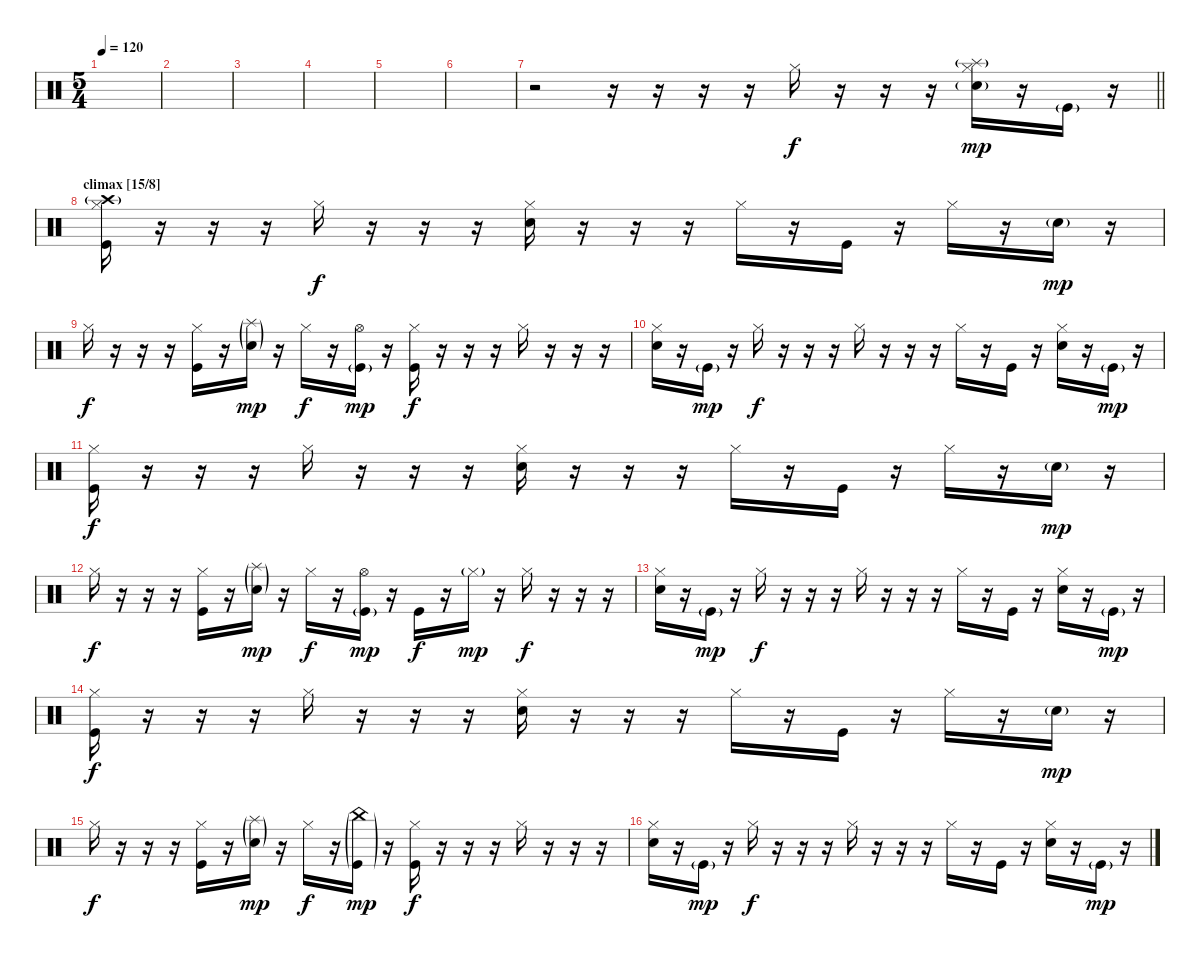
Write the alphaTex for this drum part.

\track "" {instrument percussion}
\staff {score}
\articulation defaults
\ts (5 4)
\tempo 120
\clef neutral
\ks c
|
|
|
|
|
|
\barLineRight lightlight
r.2 r.16 r.16 r.16 r.16 "Hi-Hat (closed)".16{dy f} r.16 r.16 r.16 ("Snare (hit) 2"{g} "Hi-Hat (closed)" "Splash (hit)"{g}).16{dy mp} r.16 "Kick (hit)"{g}.16 r.16 |
\section ("" "climax [15/8]")
("Kick (hit)" "Hi-Hat (closed)" "Crash high (hit)"{g}).16 r.16 r.16 r.16 "Hi-Hat (closed)".16{dy f} r.16 r.16 r.16 ("Snare (hit) 2" "Hi-Hat (closed)").16 r.16 r.16 r.16 "Hi-Hat (closed)".16 r.16 "Kick (hit)".16 r.16 "Hi-Hat (closed)".16 r.16 "Snare (hit) 2"{g}.16{dy mp} r.16 |
"Hi-Hat (closed)".16{dy f} r.16 r.16 r.16 ("Kick (hit)" "Hi-Hat (closed)").16 r.16 ("Snare (hit) 2"{g} "Splash (hit)"{g}).16{dy mp} r.16 "Hi-Hat (closed)".16{dy f} r.16 ("Kick (hit)"{g} "Hi-Hat (open)").16{dy mp} r.16 ("Kick (hit)" "Hi-Hat (closed)").16{dy f} r.16 r.16 r.16 "Hi-Hat (closed)".16 r.16 r.16 r.16 |
("Hi-Hat (closed)" "Snare (hit) 2").16 r.16 "Kick (hit)"{g}.16{dy mp} r.16 "Hi-Hat (closed)".16{dy f} r.16 r.16 r.16 "Hi-Hat (closed)".16 r.16 r.16 r.16 "Hi-Hat (closed)".16 r.16 "Kick (hit)".16 r.16 ("Snare (hit) 2" "Hi-Hat (closed)").16 r.16 "Kick (hit)"{g}.16{dy mp} r.16 |
("Kick (hit)" "Hi-Hat (closed)").16{dy f} r.16 r.16 r.16 "Hi-Hat (closed)".16 r.16 r.16 r.16 ("Snare (hit) 2" "Hi-Hat (closed)").16 r.16 r.16 r.16 "Hi-Hat (closed)".16 r.16 "Kick (hit)".16 r.16 "Hi-Hat (closed)".16 r.16 "Snare (hit) 2"{g}.16{dy mp} r.16 |
"Hi-Hat (closed)".16{dy f} r.16 r.16 r.16 ("Kick (hit)" "Hi-Hat (closed)").16 r.16 ("Snare (hit) 2"{g} "Splash (hit)"{g}).16{dy mp} r.16 "Hi-Hat (closed)".16{dy f} r.16 ("Kick (hit)"{g} "Hi-Hat (open)").16{dy mp} r.16 "Kick (hit)".16{dy f} r.16 "Hi-Hat (closed)"{g}.16{dy mp} r.16 "Hi-Hat (closed)".16{dy f} r.16 r.16 r.16 |
("Hi-Hat (closed)" "Snare (hit) 2").16 r.16 "Kick (hit)"{g}.16{dy mp} r.16 "Hi-Hat (closed)".16{dy f} r.16 r.16 r.16 "Hi-Hat (closed)".16 r.16 r.16 r.16 "Hi-Hat (closed)".16 r.16 "Kick (hit)".16 r.16 ("Snare (hit) 2" "Hi-Hat (closed)").16 r.16 "Kick (hit)"{g}.16{dy mp} r.16 |
("Kick (hit)" "Hi-Hat (closed)").16{dy f} r.16 r.16 r.16 "Hi-Hat (closed)".16 r.16 r.16 r.16 ("Snare (hit) 2" "Hi-Hat (closed)").16 r.16 r.16 r.16 "Hi-Hat (closed)".16 r.16 "Kick (hit)".16 r.16 "Hi-Hat (closed)".16 r.16 "Snare (hit) 2"{g}.16{dy mp} r.16 |
"Hi-Hat (closed)".16{dy f} r.16 r.16 r.16 ("Kick (hit)" "Hi-Hat (closed)").16 r.16 ("Snare (hit) 2"{g} "Splash (hit)"{g}).16{dy mp} r.16 "Hi-Hat (closed)".16{dy f} r.16 ("Kick (hit)"{g} "China (hit)"{g}).16{dy mp} r.16 ("Kick (hit)" "Hi-Hat (closed)").16{dy f} r.16 r.16 r.16 "Hi-Hat (closed)".16 r.16 r.16 r.16 |
("Hi-Hat (closed)" "Snare (hit) 2").16 r.16 "Kick (hit)"{g}.16{dy mp} r.16 "Hi-Hat (closed)".16{dy f} r.16 r.16 r.16 "Hi-Hat (closed)".16 r.16 r.16 r.16 "Hi-Hat (closed)".16 r.16 "Kick (hit)".16 r.16 ("Snare (hit) 2" "Hi-Hat (closed)").16 r.16 "Kick (hit)"{g}.16{dy mp} r.16
